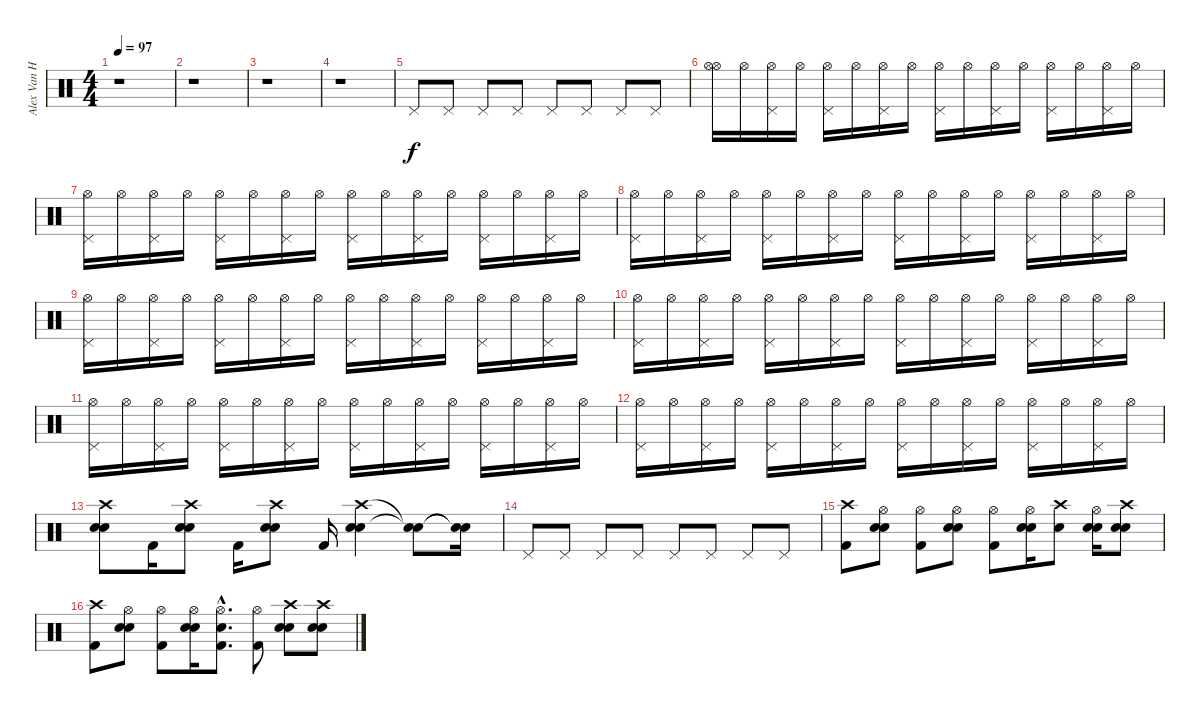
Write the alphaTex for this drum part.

\track ("Alex Van Halen" "Alex Van H") {instrument percussion}
\staff {score}
\articulation defaults
\ts (4 4)
\tempo 97
\clef neutral
\ks c
r.1{dy f} |
r.1 |
r.1 |
r.1 |
"Pedal Hi-Hat (hit)".8 "Pedal Hi-Hat (hit)".8 "Pedal Hi-Hat (hit)".8 "Pedal Hi-Hat (hit)".8 "Pedal Hi-Hat (hit)".8 "Pedal Hi-Hat (hit)".8 "Pedal Hi-Hat (hit)".8 "Pedal Hi-Hat (hit)".8 |
("Hi-Hat (open)" "Hi-Hat (open)").16 "Hi-Hat (open)".16 ("Pedal Hi-Hat (hit)" "Hi-Hat (open)").16 "Hi-Hat (open)".16 ("Pedal Hi-Hat (hit)" "Hi-Hat (open)").16 "Hi-Hat (open)".16 ("Pedal Hi-Hat (hit)" "Hi-Hat (open)").16 "Hi-Hat (open)".16 ("Pedal Hi-Hat (hit)" "Hi-Hat (open)").16 "Hi-Hat (open)".16 ("Pedal Hi-Hat (hit)" "Hi-Hat (open)").16 "Hi-Hat (open)".16 ("Pedal Hi-Hat (hit)" "Hi-Hat (open)").16 "Hi-Hat (open)".16 ("Pedal Hi-Hat (hit)" "Hi-Hat (open)").16 "Hi-Hat (open)".16 |
("Pedal Hi-Hat (hit)" "Hi-Hat (open)").16 "Hi-Hat (open)".16 ("Pedal Hi-Hat (hit)" "Hi-Hat (open)").16 "Hi-Hat (open)".16 ("Pedal Hi-Hat (hit)" "Hi-Hat (open)").16 "Hi-Hat (open)".16 ("Pedal Hi-Hat (hit)" "Hi-Hat (open)").16 "Hi-Hat (open)".16 ("Pedal Hi-Hat (hit)" "Hi-Hat (open)").16 "Hi-Hat (open)".16 ("Pedal Hi-Hat (hit)" "Hi-Hat (open)").16 "Hi-Hat (open)".16 ("Pedal Hi-Hat (hit)" "Hi-Hat (open)").16 "Hi-Hat (open)".16 ("Pedal Hi-Hat (hit)" "Hi-Hat (open)").16 "Hi-Hat (open)".16 |
("Pedal Hi-Hat (hit)" "Hi-Hat (open)").16 "Hi-Hat (open)".16 ("Pedal Hi-Hat (hit)" "Hi-Hat (open)").16 "Hi-Hat (open)".16 ("Pedal Hi-Hat (hit)" "Hi-Hat (open)").16 "Hi-Hat (open)".16 ("Pedal Hi-Hat (hit)" "Hi-Hat (open)").16 "Hi-Hat (open)".16 ("Pedal Hi-Hat (hit)" "Hi-Hat (open)").16 "Hi-Hat (open)".16 ("Pedal Hi-Hat (hit)" "Hi-Hat (open)").16 "Hi-Hat (open)".16 ("Pedal Hi-Hat (hit)" "Hi-Hat (open)").16 "Hi-Hat (open)".16 ("Pedal Hi-Hat (hit)" "Hi-Hat (open)").16 "Hi-Hat (open)".16 |
("Pedal Hi-Hat (hit)" "Hi-Hat (open)").16 "Hi-Hat (open)".16 ("Pedal Hi-Hat (hit)" "Hi-Hat (open)").16 "Hi-Hat (open)".16 ("Pedal Hi-Hat (hit)" "Hi-Hat (open)").16 "Hi-Hat (open)".16 ("Pedal Hi-Hat (hit)" "Hi-Hat (open)").16 "Hi-Hat (open)".16 ("Pedal Hi-Hat (hit)" "Hi-Hat (open)").16 "Hi-Hat (open)".16 ("Pedal Hi-Hat (hit)" "Hi-Hat (open)").16 "Hi-Hat (open)".16 ("Pedal Hi-Hat (hit)" "Hi-Hat (open)").16 "Hi-Hat (open)".16 ("Pedal Hi-Hat (hit)" "Hi-Hat (open)").16 "Hi-Hat (open)".16 |
("Pedal Hi-Hat (hit)" "Hi-Hat (open)").16 "Hi-Hat (open)".16 ("Pedal Hi-Hat (hit)" "Hi-Hat (open)").16 "Hi-Hat (open)".16 ("Pedal Hi-Hat (hit)" "Hi-Hat (open)").16 "Hi-Hat (open)".16 ("Pedal Hi-Hat (hit)" "Hi-Hat (open)").16 "Hi-Hat (open)".16 ("Pedal Hi-Hat (hit)" "Hi-Hat (open)").16 "Hi-Hat (open)".16 ("Pedal Hi-Hat (hit)" "Hi-Hat (open)").16 "Hi-Hat (open)".16 ("Pedal Hi-Hat (hit)" "Hi-Hat (open)").16 "Hi-Hat (open)".16 ("Pedal Hi-Hat (hit)" "Hi-Hat (open)").16 "Hi-Hat (open)".16 |
("Pedal Hi-Hat (hit)" "Hi-Hat (open)").16 "Hi-Hat (open)".16 ("Pedal Hi-Hat (hit)" "Hi-Hat (open)").16 "Hi-Hat (open)".16 ("Pedal Hi-Hat (hit)" "Hi-Hat (open)").16 "Hi-Hat (open)".16 ("Pedal Hi-Hat (hit)" "Hi-Hat (open)").16 "Hi-Hat (open)".16 ("Pedal Hi-Hat (hit)" "Hi-Hat (open)").16 "Hi-Hat (open)".16 ("Pedal Hi-Hat (hit)" "Hi-Hat (open)").16 "Hi-Hat (open)".16 ("Pedal Hi-Hat (hit)" "Hi-Hat (open)").16 "Hi-Hat (open)".16 ("Pedal Hi-Hat (hit)" "Hi-Hat (open)").16 "Hi-Hat (open)".16 |
("Pedal Hi-Hat (hit)" "Hi-Hat (open)").16 "Hi-Hat (open)".16 ("Pedal Hi-Hat (hit)" "Hi-Hat (open)").16 "Hi-Hat (open)".16 ("Pedal Hi-Hat (hit)" "Hi-Hat (open)").16 "Hi-Hat (open)".16 ("Pedal Hi-Hat (hit)" "Hi-Hat (open)").16 "Hi-Hat (open)".16 ("Pedal Hi-Hat (hit)" "Hi-Hat (open)").16 "Hi-Hat (open)".16 ("Pedal Hi-Hat (hit)" "Hi-Hat (open)").16 "Hi-Hat (open)".16 ("Pedal Hi-Hat (hit)" "Hi-Hat (open)").16 "Hi-Hat (open)".16 ("Pedal Hi-Hat (hit)" "Hi-Hat (open)").16 "Hi-Hat (open)".16 |
("Crash high (hit)" "Electric Snare (hit)" "Snare (hit) 2").8 "Kick (hit) 2".16 ("Crash high (hit)" "Electric Snare (hit)" "Snare (hit) 2").8 "Kick (hit) 2".16 ("Crash high (hit)" "Electric Snare (hit)" "Snare (hit) 2").8 "Kick (hit) 2".16 ("Crash high (hit)" "Electric Snare (hit)" "Snare (hit) 2").4 ("Snare (hit)"{t} "Snare (hit)"{t}).8 ("Snare (hit)"{t} "Snare (hit)"{t}).16 |
"Pedal Hi-Hat (hit)".8 "Pedal Hi-Hat (hit)".8 "Pedal Hi-Hat (hit)".8 "Pedal Hi-Hat (hit)".8 "Pedal Hi-Hat (hit)".8 "Pedal Hi-Hat (hit)".8 "Pedal Hi-Hat (hit)".8 "Pedal Hi-Hat (hit)".8 |
("Crash high (hit)" "Kick (hit) 2").8 ("Hi-Hat (open)" "Snare (hit) 2" "Electric Snare (hit)").8 ("Hi-Hat (open)" "Kick (hit) 2").8 ("Hi-Hat (open)" "Snare (hit) 2" "Electric Snare (hit)").8 ("Hi-Hat (open)" "Kick (hit) 2").8 ("Hi-Hat (open)" "Snare (hit) 2" "Electric Snare (hit)").16 ("Crash high (hit)" "Electric Snare (hit)").8 ("Hi-Hat (open)" "Snare (hit) 2" "Electric Snare (hit)").16 ("Crash high (hit)" "Snare (hit) 2" "Electric Snare (hit)").8 |
("Crash high (hit)" "Kick (hit) 2").8 ("Hi-Hat (open)" "Snare (hit) 2" "Electric Snare (hit)").8 ("Hi-Hat (open)" "Kick (hit) 2").8 ("Hi-Hat (open)" "Snare (hit) 2" "Electric Snare (hit)").16 ("Hi-Hat (open)"{hac} "Electric Snare (hit)"{hac} "Kick (hit) 2"{hac}).8{d} ("Hi-Hat (open)" "Kick (hit) 2").8 ("Crash high (hit)" "Snare (hit) 2" "Electric Snare (hit)").8 ("Crash high (hit)" "Snare (hit) 2" "Electric Snare (hit)").8
